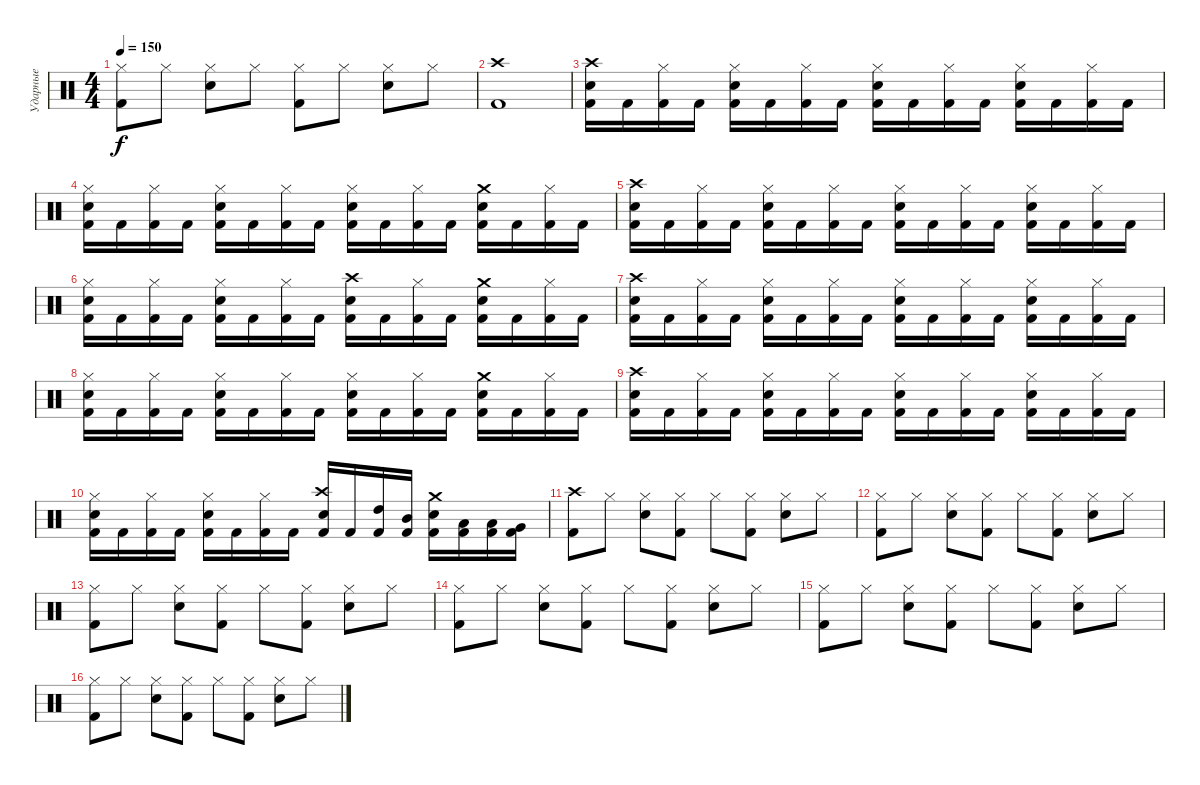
\track ("Ударные" "Ударные") {instrument percussion}
\staff {score}
\articulation defaults
\ts (4 4)
\tempo 150
\clef neutral
\ks c
("Hi-Hat (closed)" "Kick (hit) 2").8{dy f} "Hi-Hat (closed)".8 ("Hi-Hat (closed)" "Snare (hit) 2").8 "Hi-Hat (closed)".8 ("Hi-Hat (closed)" "Kick (hit) 2").8 "Hi-Hat (closed)".8 ("Hi-Hat (closed)" "Snare (hit) 2").8 "Hi-Hat (closed)".8 |
("Crash high (hit)" "Kick (hit) 2").1 |
("Crash high (hit)" "Electric Snare (hit)" "Kick (hit) 2").16 "Kick (hit) 2".16 ("Hi-Hat (closed)" "Kick (hit) 2").16 "Kick (hit) 2".16 ("Hi-Hat (closed)" "Electric Snare (hit)" "Kick (hit) 2").16 "Kick (hit) 2".16 ("Hi-Hat (closed)" "Kick (hit) 2").16 "Kick (hit) 2".16 ("Hi-Hat (closed)" "Electric Snare (hit)" "Kick (hit) 2").16 "Kick (hit) 2".16 ("Hi-Hat (closed)" "Kick (hit) 2").16 "Kick (hit) 2".16 ("Hi-Hat (closed)" "Electric Snare (hit)" "Kick (hit) 2").16 "Kick (hit) 2".16 ("Hi-Hat (closed)" "Kick (hit) 2").16 "Kick (hit) 2".16 |
("Hi-Hat (closed)" "Electric Snare (hit)" "Kick (hit) 2").16 "Kick (hit) 2".16 ("Hi-Hat (closed)" "Kick (hit) 2").16 "Kick (hit) 2".16 ("Hi-Hat (closed)" "Electric Snare (hit)" "Kick (hit) 2").16 "Kick (hit) 2".16 ("Hi-Hat (closed)" "Kick (hit) 2").16 "Kick (hit) 2".16 ("Hi-Hat (closed)" "Electric Snare (hit)" "Kick (hit) 2").16 "Kick (hit) 2".16 ("Hi-Hat (closed)" "Kick (hit) 2").16 "Kick (hit) 2".16 ("Crash medium (hit)" "Electric Snare (hit)" "Kick (hit) 2").16 "Kick (hit) 2".16 ("Hi-Hat (closed)" "Kick (hit) 2").16 "Kick (hit) 2".16 |
("Crash high (hit)" "Electric Snare (hit)" "Kick (hit) 2").16 "Kick (hit) 2".16 ("Hi-Hat (closed)" "Kick (hit) 2").16 "Kick (hit) 2".16 ("Hi-Hat (closed)" "Electric Snare (hit)" "Kick (hit) 2").16 "Kick (hit) 2".16 ("Hi-Hat (closed)" "Kick (hit) 2").16 "Kick (hit) 2".16 ("Hi-Hat (closed)" "Electric Snare (hit)" "Kick (hit) 2").16 "Kick (hit) 2".16 ("Hi-Hat (closed)" "Kick (hit) 2").16 "Kick (hit) 2".16 ("Hi-Hat (closed)" "Electric Snare (hit)" "Kick (hit) 2").16 "Kick (hit) 2".16 ("Hi-Hat (closed)" "Kick (hit) 2").16 "Kick (hit) 2".16 |
("Hi-Hat (closed)" "Electric Snare (hit)" "Kick (hit) 2").16 "Kick (hit) 2".16 ("Hi-Hat (closed)" "Kick (hit) 2").16 "Kick (hit) 2".16 ("Hi-Hat (closed)" "Electric Snare (hit)" "Kick (hit) 2").16 "Kick (hit) 2".16 ("Hi-Hat (closed)" "Kick (hit) 2").16 "Kick (hit) 2".16 ("Crash high (hit)" "Electric Snare (hit)" "Kick (hit) 2").16 "Kick (hit) 2".16 ("Hi-Hat (closed)" "Kick (hit) 2").16 "Kick (hit) 2".16 ("Crash medium (hit)" "Electric Snare (hit)" "Kick (hit) 2").16 "Kick (hit) 2".16 ("Hi-Hat (closed)" "Kick (hit) 2").16 "Kick (hit) 2".16 |
("Crash high (hit)" "Electric Snare (hit)" "Kick (hit) 2").16 "Kick (hit) 2".16 ("Hi-Hat (closed)" "Kick (hit) 2").16 "Kick (hit) 2".16 ("Hi-Hat (closed)" "Electric Snare (hit)" "Kick (hit) 2").16 "Kick (hit) 2".16 ("Hi-Hat (closed)" "Kick (hit) 2").16 "Kick (hit) 2".16 ("Hi-Hat (closed)" "Electric Snare (hit)" "Kick (hit) 2").16 "Kick (hit) 2".16 ("Hi-Hat (closed)" "Kick (hit) 2").16 "Kick (hit) 2".16 ("Hi-Hat (closed)" "Electric Snare (hit)" "Kick (hit) 2").16 "Kick (hit) 2".16 ("Hi-Hat (closed)" "Kick (hit) 2").16 "Kick (hit) 2".16 |
("Hi-Hat (closed)" "Electric Snare (hit)" "Kick (hit) 2").16 "Kick (hit) 2".16 ("Hi-Hat (closed)" "Kick (hit) 2").16 "Kick (hit) 2".16 ("Hi-Hat (closed)" "Electric Snare (hit)" "Kick (hit) 2").16 "Kick (hit) 2".16 ("Hi-Hat (closed)" "Kick (hit) 2").16 "Kick (hit) 2".16 ("Hi-Hat (closed)" "Electric Snare (hit)" "Kick (hit) 2").16 "Kick (hit) 2".16 ("Hi-Hat (closed)" "Kick (hit) 2").16 "Kick (hit) 2".16 ("Crash medium (hit)" "Electric Snare (hit)" "Kick (hit) 2").16 "Kick (hit) 2".16 ("Hi-Hat (closed)" "Kick (hit) 2").16 "Kick (hit) 2".16 |
("Crash high (hit)" "Electric Snare (hit)" "Kick (hit) 2").16 "Kick (hit) 2".16 ("Hi-Hat (closed)" "Kick (hit) 2").16 "Kick (hit) 2".16 ("Hi-Hat (closed)" "Electric Snare (hit)" "Kick (hit) 2").16 "Kick (hit) 2".16 ("Hi-Hat (closed)" "Kick (hit) 2").16 "Kick (hit) 2".16 ("Hi-Hat (closed)" "Electric Snare (hit)" "Kick (hit) 2").16 "Kick (hit) 2".16 ("Hi-Hat (closed)" "Kick (hit) 2").16 "Kick (hit) 2".16 ("Hi-Hat (closed)" "Electric Snare (hit)" "Kick (hit) 2").16 "Kick (hit) 2".16 ("Hi-Hat (closed)" "Kick (hit) 2").16 "Kick (hit) 2".16 |
("Hi-Hat (closed)" "Electric Snare (hit)" "Kick (hit) 2").16 "Kick (hit) 2".16 ("Hi-Hat (closed)" "Kick (hit) 2").16 "Kick (hit) 2".16 ("Hi-Hat (closed)" "Electric Snare (hit)" "Kick (hit) 2").16 "Kick (hit) 2".16 ("Hi-Hat (closed)" "Kick (hit) 2").16 "Kick (hit) 2".16 ("Crash high (hit)" "Electric Snare (hit)" "Kick (hit) 2").16 "Kick (hit) 2".16 ("High Tom (hit)" "Kick (hit) 2").16 ("Mid Tom (hit)" "Kick (hit) 2").16 ("Crash medium (hit)" "Electric Snare (hit)" "Kick (hit) 2").16 ("Low Floor Tom (hit)" "Kick (hit) 2").16 ("Low Tom (hit)" "Kick (hit) 2").16 ("Very Low Tom (hit)" "Kick (hit) 2").16 |
("Crash high (hit)" "Kick (hit) 2").8 "Hi-Hat (closed)".8 ("Hi-Hat (closed)" "Snare (hit) 2").8 ("Hi-Hat (closed)" "Kick (hit) 2").8 "Hi-Hat (closed)".8 ("Hi-Hat (closed)" "Kick (hit) 2").8 ("Hi-Hat (closed)" "Snare (hit) 2").8 "Hi-Hat (closed)".8 |
("Hi-Hat (closed)" "Kick (hit) 2").8 "Hi-Hat (closed)".8 ("Hi-Hat (closed)" "Snare (hit) 2").8 ("Hi-Hat (closed)" "Kick (hit) 2").8 "Hi-Hat (closed)".8 ("Hi-Hat (closed)" "Kick (hit) 2").8 ("Hi-Hat (closed)" "Snare (hit) 2").8 "Hi-Hat (closed)".8 |
("Hi-Hat (closed)" "Kick (hit) 2").8 "Hi-Hat (closed)".8 ("Hi-Hat (closed)" "Snare (hit) 2").8 ("Hi-Hat (closed)" "Kick (hit) 2").8 "Hi-Hat (closed)".8 ("Hi-Hat (closed)" "Kick (hit) 2").8 ("Hi-Hat (closed)" "Snare (hit) 2").8 "Hi-Hat (closed)".8 |
("Hi-Hat (closed)" "Kick (hit) 2").8 "Hi-Hat (closed)".8 ("Hi-Hat (closed)" "Snare (hit) 2").8 ("Hi-Hat (closed)" "Kick (hit) 2").8 "Hi-Hat (closed)".8 ("Hi-Hat (closed)" "Kick (hit) 2").8 ("Hi-Hat (closed)" "Snare (hit) 2").8 "Hi-Hat (closed)".8 |
("Hi-Hat (closed)" "Kick (hit) 2").8 "Hi-Hat (closed)".8 ("Hi-Hat (closed)" "Snare (hit) 2").8 ("Hi-Hat (closed)" "Kick (hit) 2").8 "Hi-Hat (closed)".8 ("Hi-Hat (closed)" "Kick (hit) 2").8 ("Hi-Hat (closed)" "Snare (hit) 2").8 "Hi-Hat (closed)".8 |
("Hi-Hat (closed)" "Kick (hit) 2").8 "Hi-Hat (closed)".8 ("Hi-Hat (closed)" "Snare (hit) 2").8 ("Hi-Hat (closed)" "Kick (hit) 2").8 "Hi-Hat (closed)".8 ("Hi-Hat (closed)" "Kick (hit) 2").8 ("Hi-Hat (closed)" "Snare (hit) 2").8 "Hi-Hat (closed)".8
